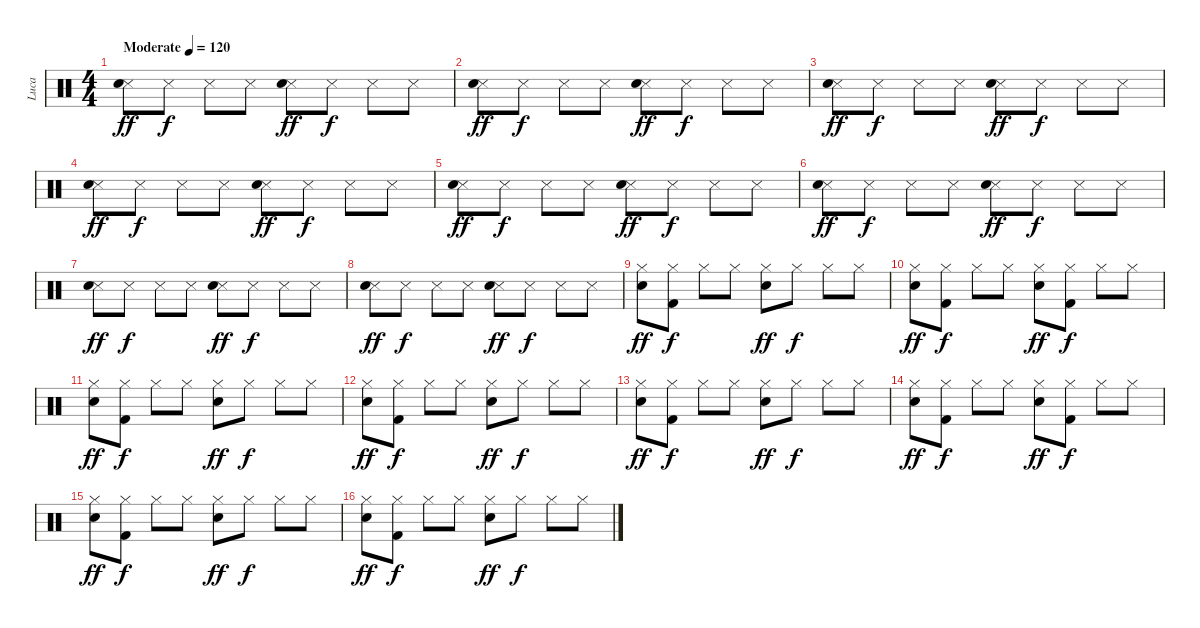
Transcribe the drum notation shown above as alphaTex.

\track ("Luca" "Luca") {instrument percussion}
\staff {score}
\articulation defaults
\ts (4 4)
\tempo (120 "Moderate")
\clef neutral
\ks c
("Snare (side stick) 3" "Snare (hit) 2").8{dy ff} "Snare (side stick) 3".8{dy f} "Snare (side stick) 3".8 "Snare (side stick) 3".8 ("Snare (side stick) 3" "Snare (hit) 2").8{dy ff} "Snare (side stick) 3".8{dy f} "Snare (side stick) 3".8 "Snare (side stick) 3".8 |
("Snare (side stick) 3" "Snare (hit) 2").8{dy ff} "Snare (side stick) 3".8{dy f} "Snare (side stick) 3".8 "Snare (side stick) 3".8 ("Snare (side stick) 3" "Snare (hit) 2").8{dy ff} "Snare (side stick) 3".8{dy f} "Snare (side stick) 3".8 "Snare (side stick) 3".8 |
("Snare (side stick) 3" "Snare (hit) 2").8{dy ff} "Snare (side stick) 3".8{dy f} "Snare (side stick) 3".8 "Snare (side stick) 3".8 ("Snare (side stick) 3" "Snare (hit) 2").8{dy ff} "Snare (side stick) 3".8{dy f} "Snare (side stick) 3".8 "Snare (side stick) 3".8 |
("Snare (side stick) 3" "Snare (hit) 2").8{dy ff} "Snare (side stick) 3".8{dy f} "Snare (side stick) 3".8 "Snare (side stick) 3".8 ("Snare (side stick) 3" "Snare (hit) 2").8{dy ff} "Snare (side stick) 3".8{dy f} "Snare (side stick) 3".8 "Snare (side stick) 3".8 |
("Snare (side stick) 3" "Snare (hit) 2").8{dy ff} "Snare (side stick) 3".8{dy f} "Snare (side stick) 3".8 "Snare (side stick) 3".8 ("Snare (side stick) 3" "Snare (hit) 2").8{dy ff} "Snare (side stick) 3".8{dy f} "Snare (side stick) 3".8 "Snare (side stick) 3".8 |
("Snare (side stick) 3" "Snare (hit) 2").8{dy ff} "Snare (side stick) 3".8{dy f} "Snare (side stick) 3".8 "Snare (side stick) 3".8 ("Snare (side stick) 3" "Snare (hit) 2").8{dy ff} "Snare (side stick) 3".8{dy f} "Snare (side stick) 3".8 "Snare (side stick) 3".8 |
("Snare (side stick) 3" "Snare (hit) 2").8{dy ff} "Snare (side stick) 3".8{dy f} "Snare (side stick) 3".8 "Snare (side stick) 3".8 ("Snare (side stick) 3" "Snare (hit) 2").8{dy ff} "Snare (side stick) 3".8{dy f} "Snare (side stick) 3".8 "Snare (side stick) 3".8 |
("Snare (side stick) 3" "Snare (hit) 2").8{dy ff} "Snare (side stick) 3".8{dy f} "Snare (side stick) 3".8 "Snare (side stick) 3".8 ("Snare (side stick) 3" "Snare (hit) 2").8{dy ff} "Snare (side stick) 3".8{dy f} "Snare (side stick) 3".8 "Snare (side stick) 3".8 |
("Hi-Hat (closed)" "Snare (hit) 2").8{dy ff} ("Hi-Hat (closed)" "Kick (hit) 2").8{dy f} "Hi-Hat (closed)".8 "Hi-Hat (closed)".8 ("Hi-Hat (closed)" "Snare (hit) 2").8{dy ff} "Hi-Hat (closed)".8{dy f} "Hi-Hat (closed)".8 "Hi-Hat (closed)".8 |
("Hi-Hat (closed)" "Snare (hit) 2").8{dy ff} ("Hi-Hat (closed)" "Kick (hit) 2").8{dy f} "Hi-Hat (closed)".8 "Hi-Hat (closed)".8 ("Hi-Hat (closed)" "Snare (hit) 2").8{dy ff} ("Hi-Hat (closed)" "Kick (hit) 2").8{dy f} "Hi-Hat (closed)".8 "Hi-Hat (closed)".8 |
("Hi-Hat (closed)" "Snare (hit) 2").8{dy ff} ("Hi-Hat (closed)" "Kick (hit) 2").8{dy f} "Hi-Hat (closed)".8 "Hi-Hat (closed)".8 ("Hi-Hat (closed)" "Snare (hit) 2").8{dy ff} "Hi-Hat (closed)".8{dy f} "Hi-Hat (closed)".8 "Hi-Hat (closed)".8 |
("Hi-Hat (closed)" "Snare (hit) 2").8{dy ff} ("Hi-Hat (closed)" "Kick (hit) 2").8{dy f} "Hi-Hat (closed)".8 "Hi-Hat (closed)".8 ("Hi-Hat (closed)" "Snare (hit) 2").8{dy ff} "Hi-Hat (closed)".8{dy f} "Hi-Hat (closed)".8 "Hi-Hat (closed)".8 |
("Hi-Hat (closed)" "Snare (hit) 2").8{dy ff} ("Hi-Hat (closed)" "Kick (hit) 2").8{dy f} "Hi-Hat (closed)".8 "Hi-Hat (closed)".8 ("Hi-Hat (closed)" "Snare (hit) 2").8{dy ff} "Hi-Hat (closed)".8{dy f} "Hi-Hat (closed)".8 "Hi-Hat (closed)".8 |
("Hi-Hat (closed)" "Snare (hit) 2").8{dy ff} ("Hi-Hat (closed)" "Kick (hit) 2").8{dy f} "Hi-Hat (closed)".8 "Hi-Hat (closed)".8 ("Hi-Hat (closed)" "Snare (hit) 2").8{dy ff} ("Hi-Hat (closed)" "Kick (hit) 2").8{dy f} "Hi-Hat (closed)".8 "Hi-Hat (closed)".8 |
("Hi-Hat (closed)" "Snare (hit) 2").8{dy ff} ("Hi-Hat (closed)" "Kick (hit) 2").8{dy f} "Hi-Hat (closed)".8 "Hi-Hat (closed)".8 ("Hi-Hat (closed)" "Snare (hit) 2").8{dy ff} "Hi-Hat (closed)".8{dy f} "Hi-Hat (closed)".8 "Hi-Hat (closed)".8 |
("Hi-Hat (closed)" "Snare (hit) 2").8{dy ff} ("Hi-Hat (closed)" "Kick (hit) 2").8{dy f} "Hi-Hat (closed)".8 "Hi-Hat (closed)".8 ("Hi-Hat (closed)" "Snare (hit) 2").8{dy ff} "Hi-Hat (closed)".8{dy f} "Hi-Hat (closed)".8 "Hi-Hat (closed)".8
